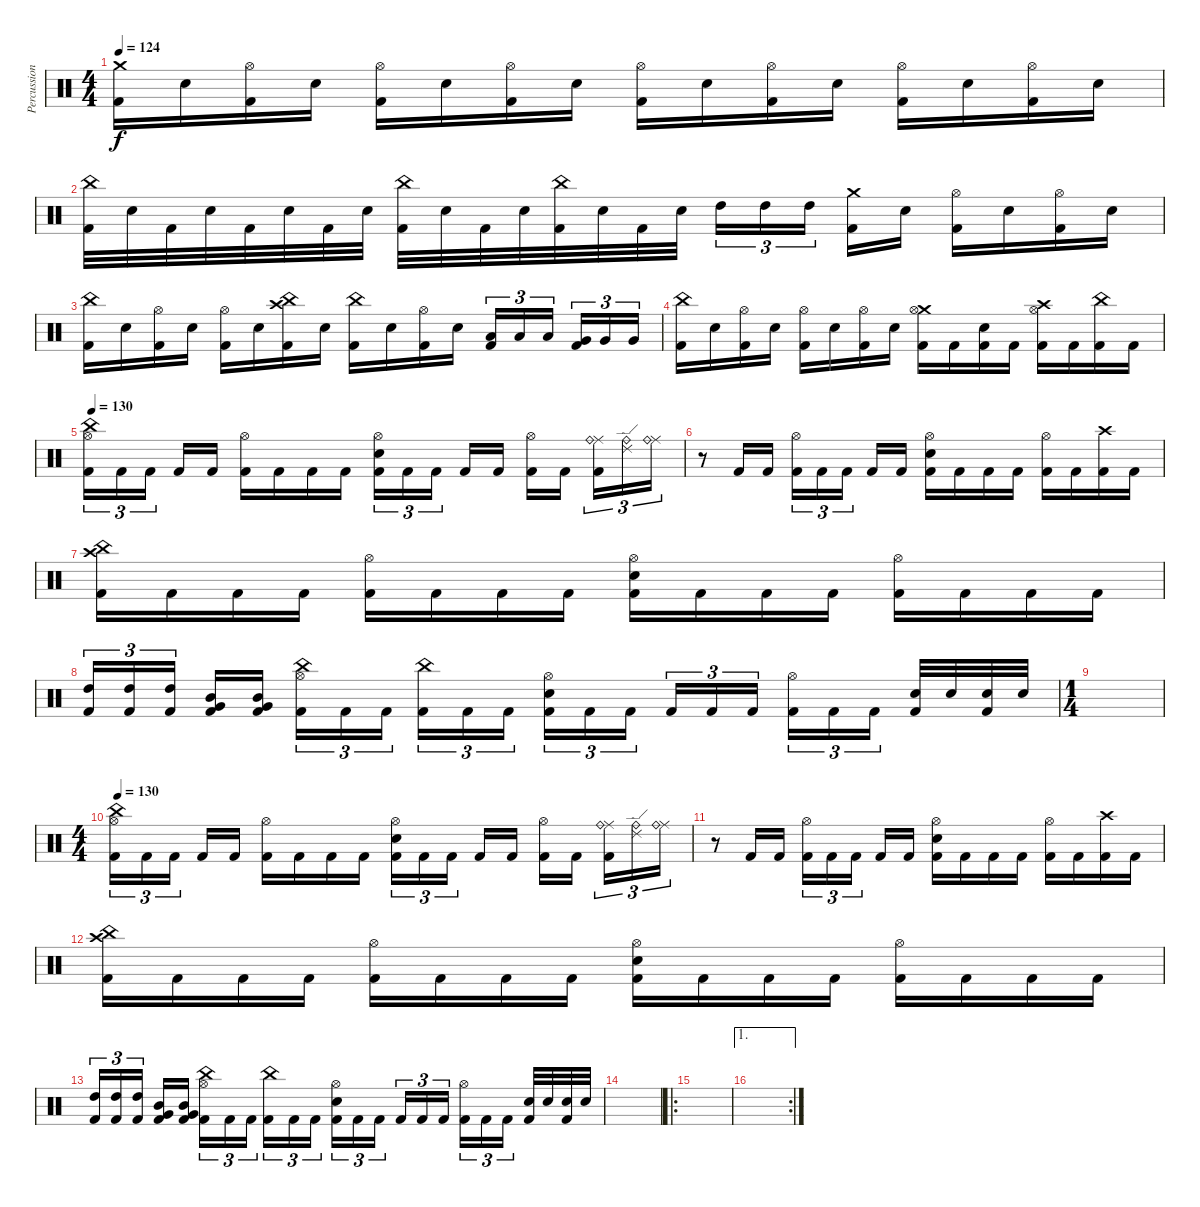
\track ("Percussion" "Percussion") {instrument percussion}
\staff {score}
\articulation defaults
\ts (4 4)
\tempo 124
\clef neutral
\ks c
("Crash medium (hit)" "Kick (hit) 2").16{dy f} "Electric Snare (hit)".16 ("Hi-Hat (open)" "Kick (hit) 2").16 "Electric Snare (hit)".16 ("Hi-Hat (open)" "Kick (hit) 2").16 "Electric Snare (hit)".16 ("Hi-Hat (open)" "Kick (hit) 2").16 "Electric Snare (hit)".16 ("Hi-Hat (open)" "Kick (hit) 2").16 "Electric Snare (hit)".16 ("Hi-Hat (open)" "Kick (hit) 2").16 "Electric Snare (hit)".16 ("Hi-Hat (open)" "Kick (hit) 2").16 "Electric Snare (hit)".16 ("Hi-Hat (open)" "Kick (hit) 2").16 "Electric Snare (hit)".16 |
("China (hit)" "Kick (hit) 2").32 "Electric Snare (hit)".32 "Kick (hit) 2".32 "Electric Snare (hit)".32 "Kick (hit) 2".32 "Electric Snare (hit)".32 "Kick (hit) 2".32 "Electric Snare (hit)".32 ("China (hit)" "Kick (hit) 2").32 "Electric Snare (hit)".32 "Kick (hit) 2".32 "Electric Snare (hit)".32 ("China (hit)" "Kick (hit) 2").32 "Electric Snare (hit)".32 "Kick (hit) 2".32 "Electric Snare (hit)".32 "High Tom (hit)".16{tu (3 2)} "High Tom (hit)".16{tu (3 2)} "High Tom (hit)".16{tu (3 2) beam splitsecondary} ("Crash medium (hit)" "Kick (hit) 2").16 "Electric Snare (hit)".16 ("Hi-Hat (open)" "Kick (hit) 2").16 "Electric Snare (hit)".16 ("Hi-Hat (open)" "Kick (hit) 2").16 "Electric Snare (hit)".16 |
("China (hit)" "Kick (hit) 2").16 "Electric Snare (hit)".16 ("Hi-Hat (open)" "Kick (hit) 2").16 "Electric Snare (hit)".16 ("Hi-Hat (open)" "Kick (hit) 2").16 "Electric Snare (hit)".16 ("Crash high (hit)" "China (hit)" "Kick (hit) 2").16 "Electric Snare (hit)".16 ("China (hit)" "Kick (hit) 2").16 "Electric Snare (hit)".16 ("Hi-Hat (open)" "Kick (hit) 2").16 "Electric Snare (hit)".16 ("Low Tom (hit)" "Kick (hit) 2").16{tu (3 2)} "Low Tom (hit)".16{tu (3 2)} "Low Tom (hit)".16{tu (3 2) beam splitsecondary} ("Very Low Tom (hit)" "Kick (hit) 2").16{tu (3 2)} "Very Low Tom (hit)".16{tu (3 2)} "Very Low Tom (hit)".16{tu (3 2)} |
("China (hit)" "Kick (hit) 2").16 "Electric Snare (hit)".16 ("Hi-Hat (open)" "Kick (hit) 2").16 "Electric Snare (hit)".16 ("Hi-Hat (open)" "Kick (hit) 2").16 "Electric Snare (hit)".16 ("Hi-Hat (open)" "Kick (hit) 2").16 "Electric Snare (hit)".16 ("Crash medium (hit)" "Hi-Hat (open)" "Kick (hit) 2").16 "Kick (hit) 2".16 ("Electric Snare (hit)" "Kick (hit) 2").16 "Kick (hit) 2".16 ("Crash high (hit)" "Hi-Hat (open)" "Kick (hit) 2").16 "Kick (hit) 2".16 ("China (hit)" "Kick (hit) 2").16 "Kick (hit) 2".16 |
\tempo 130
("China (hit)" "Hi-Hat (open)" "Kick (hit) 2").16{tu (3 2)} "Kick (hit) 2".16{tu (3 2)} "Kick (hit) 2".16{tu (3 2) beam splitsecondary} "Kick (hit) 2".16 "Kick (hit) 2".16 ("Hi-Hat (open)" "Kick (hit) 2").16 "Kick (hit) 2".16 "Kick (hit) 2".16 "Kick (hit) 2".16 ("Electric Snare (hit)" "Hi-Hat (open)" "Kick (hit) 2").16{tu (3 2)} "Kick (hit) 2".16{tu (3 2)} "Kick (hit) 2".16{tu (3 2) beam splitsecondary} "Kick (hit) 2".16 "Kick (hit) 2".16 ("Hi-Hat (open)" "Kick (hit) 2").16 "Kick (hit) 2".16{beam splitsecondary} ("Ride (middle)" "Ride (bell)" "Kick (hit) 2").16{tu (3 2)} ("Ride (edge) 2" "Ride (bell)").16{tu (3 2)} ("Ride (middle)" "Ride (bell)").16{tu (3 2)} |
r.8 "Kick (hit) 2".16 "Kick (hit) 2".16 ("Hi-Hat (open)" "Kick (hit) 2").16{tu (3 2)} "Kick (hit) 2".16{tu (3 2)} "Kick (hit) 2".16{tu (3 2) beam splitsecondary} "Kick (hit) 2".16 "Kick (hit) 2".16 ("Hi-Hat (open)" "Electric Snare (hit)" "Kick (hit) 2").16 "Kick (hit) 2".16 "Kick (hit) 2".16 "Kick (hit) 2".16 ("Hi-Hat (open)" "Kick (hit) 2").16 "Kick (hit) 2".16 ("Crash high (hit)" "Kick (hit) 2").16 "Kick (hit) 2".16 |
("China (hit)" "Crash high (hit)" "Kick (hit) 2").16 "Kick (hit) 2".16 "Kick (hit) 2".16 "Kick (hit) 2".16 ("Hi-Hat (open)" "Kick (hit) 2").16 "Kick (hit) 2".16 "Kick (hit) 2".16 "Kick (hit) 2".16 ("Hi-Hat (open)" "Electric Snare (hit)" "Kick (hit) 2").16 "Kick (hit) 2".16 "Kick (hit) 2".16 "Kick (hit) 2".16 ("Hi-Hat (open)" "Kick (hit) 2").16 "Kick (hit) 2".16 "Kick (hit) 2".16 "Kick (hit) 2".16 |
("High Tom (hit)" "Kick (hit) 2").16{tu (3 2)} ("High Tom (hit)" "Kick (hit) 2").16{tu (3 2)} ("High Tom (hit)" "Kick (hit) 2").16{tu (3 2) beam splitsecondary} ("Very Low Tom (hit)" "Mid Tom (hit)" "Kick (hit) 2").16 ("Very Low Tom (hit)" "Mid Tom (hit)" "Kick (hit) 2").16 ("China (hit)" "Hi-Hat (open)" "Kick (hit) 2").16{tu (3 2)} "Kick (hit) 2".16{tu (3 2)} "Kick (hit) 2".16{tu (3 2) beam splitsecondary} ("China (hit)" "Kick (hit) 2").16{tu (3 2)} "Kick (hit) 2".16{tu (3 2)} "Kick (hit) 2".16{tu (3 2)} ("Hi-Hat (open)" "Electric Snare (hit)" "Kick (hit) 2").16{tu (3 2)} "Kick (hit) 2".16{tu (3 2)} "Kick (hit) 2".16{tu (3 2) beam splitsecondary} "Kick (hit) 2".16{tu (3 2)} "Kick (hit) 2".16{tu (3 2)} "Kick (hit) 2".16{tu (3 2)} ("Hi-Hat (open)" "Kick (hit) 2").16{tu (3 2)} "Kick (hit) 2".16{tu (3 2)} "Kick (hit) 2".16{tu (3 2) beam splitsecondary} ("Electric Snare (hit)" "Kick (hit) 2").32 "Electric Snare (hit)".32 ("Electric Snare (hit)" "Kick (hit) 2").32 "Electric Snare (hit)".32 |
\ts (1 4)
|
\ts (4 4)
\tempo 130
("China (hit)" "Hi-Hat (open)" "Kick (hit) 2").16{tu (3 2)} "Kick (hit) 2".16{tu (3 2)} "Kick (hit) 2".16{tu (3 2) beam splitsecondary} "Kick (hit) 2".16 "Kick (hit) 2".16 ("Hi-Hat (open)" "Kick (hit) 2").16 "Kick (hit) 2".16 "Kick (hit) 2".16 "Kick (hit) 2".16 ("Electric Snare (hit)" "Hi-Hat (open)" "Kick (hit) 2").16{tu (3 2)} "Kick (hit) 2".16{tu (3 2)} "Kick (hit) 2".16{tu (3 2) beam splitsecondary} "Kick (hit) 2".16 "Kick (hit) 2".16 ("Hi-Hat (open)" "Kick (hit) 2").16 "Kick (hit) 2".16{beam splitsecondary} ("Ride (middle)" "Ride (bell)" "Kick (hit) 2").16{tu (3 2)} ("Ride (edge) 2" "Ride (bell)").16{tu (3 2)} ("Ride (middle)" "Ride (bell)").16{tu (3 2)} |
r.8 "Kick (hit) 2".16 "Kick (hit) 2".16 ("Hi-Hat (open)" "Kick (hit) 2").16{tu (3 2)} "Kick (hit) 2".16{tu (3 2)} "Kick (hit) 2".16{tu (3 2) beam splitsecondary} "Kick (hit) 2".16 "Kick (hit) 2".16 ("Hi-Hat (open)" "Electric Snare (hit)" "Kick (hit) 2").16 "Kick (hit) 2".16 "Kick (hit) 2".16 "Kick (hit) 2".16 ("Hi-Hat (open)" "Kick (hit) 2").16 "Kick (hit) 2".16 ("Crash high (hit)" "Kick (hit) 2").16 "Kick (hit) 2".16 |
("China (hit)" "Crash high (hit)" "Kick (hit) 2").16 "Kick (hit) 2".16 "Kick (hit) 2".16 "Kick (hit) 2".16 ("Hi-Hat (open)" "Kick (hit) 2").16 "Kick (hit) 2".16 "Kick (hit) 2".16 "Kick (hit) 2".16 ("Hi-Hat (open)" "Electric Snare (hit)" "Kick (hit) 2").16 "Kick (hit) 2".16 "Kick (hit) 2".16 "Kick (hit) 2".16 ("Hi-Hat (open)" "Kick (hit) 2").16 "Kick (hit) 2".16 "Kick (hit) 2".16 "Kick (hit) 2".16 |
("High Tom (hit)" "Kick (hit) 2").16{tu (3 2)} ("High Tom (hit)" "Kick (hit) 2").16{tu (3 2)} ("High Tom (hit)" "Kick (hit) 2").16{tu (3 2) beam splitsecondary} ("Very Low Tom (hit)" "Mid Tom (hit)" "Kick (hit) 2").16 ("Very Low Tom (hit)" "Mid Tom (hit)" "Kick (hit) 2").16 ("China (hit)" "Hi-Hat (open)" "Kick (hit) 2").16{tu (3 2)} "Kick (hit) 2".16{tu (3 2)} "Kick (hit) 2".16{tu (3 2) beam splitsecondary} ("China (hit)" "Kick (hit) 2").16{tu (3 2)} "Kick (hit) 2".16{tu (3 2)} "Kick (hit) 2".16{tu (3 2)} ("Hi-Hat (open)" "Electric Snare (hit)" "Kick (hit) 2").16{tu (3 2)} "Kick (hit) 2".16{tu (3 2)} "Kick (hit) 2".16{tu (3 2) beam splitsecondary} "Kick (hit) 2".16{tu (3 2)} "Kick (hit) 2".16{tu (3 2)} "Kick (hit) 2".16{tu (3 2)} ("Hi-Hat (open)" "Kick (hit) 2").16{tu (3 2)} "Kick (hit) 2".16{tu (3 2)} "Kick (hit) 2".16{tu (3 2) beam splitsecondary} ("Electric Snare (hit)" "Kick (hit) 2").32 "Electric Snare (hit)".32 ("Electric Snare (hit)" "Kick (hit) 2").32 "Electric Snare (hit)".32 |
|
\ro
|
\ae 1
\rc 2
